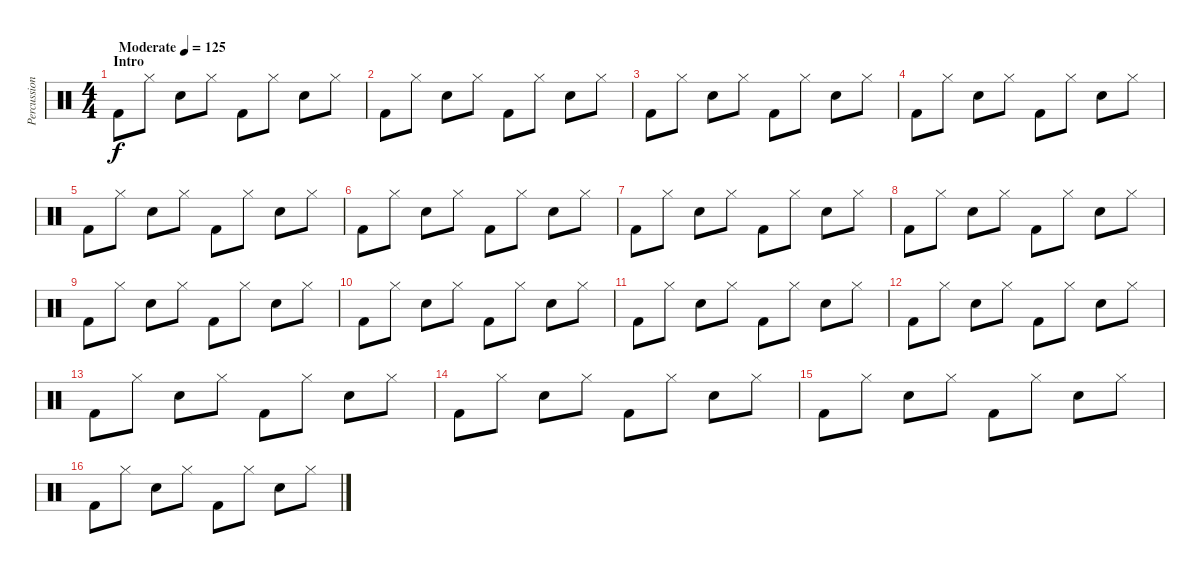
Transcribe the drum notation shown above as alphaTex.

\track ("Percussion" "Percussion") {instrument percussion}
\staff {score}
\articulation defaults
\ts (4 4)
\section ("" "Intro")
\tempo (125 "Moderate")
\clef neutral
\ks c "Kick (hit) 2".8{dy f} "Hi-Hat (closed)".8 "Snare (hit) 2".8 "Hi-Hat (closed)".8 "Kick (hit) 2".8 "Hi-Hat (closed)".8 "Snare (hit) 2".8 "Hi-Hat (closed)".8
|
"Kick (hit) 2".8 "Hi-Hat (closed)".8 "Snare (hit) 2".8 "Hi-Hat (closed)".8 "Kick (hit) 2".8 "Hi-Hat (closed)".8 "Snare (hit) 2".8 "Hi-Hat (closed)".8 |
"Kick (hit) 2".8 "Hi-Hat (closed)".8 "Snare (hit) 2".8 "Hi-Hat (closed)".8 "Kick (hit) 2".8 "Hi-Hat (closed)".8 "Snare (hit) 2".8 "Hi-Hat (closed)".8 |
"Kick (hit) 2".8 "Hi-Hat (closed)".8 "Snare (hit) 2".8 "Hi-Hat (closed)".8 "Kick (hit) 2".8 "Hi-Hat (closed)".8 "Snare (hit) 2".8 "Hi-Hat (closed)".8 |
"Kick (hit) 2".8 "Hi-Hat (closed)".8 "Snare (hit) 2".8 "Hi-Hat (closed)".8 "Kick (hit) 2".8 "Hi-Hat (closed)".8 "Snare (hit) 2".8 "Hi-Hat (closed)".8 |
"Kick (hit) 2".8 "Hi-Hat (closed)".8 "Snare (hit) 2".8 "Hi-Hat (closed)".8 "Kick (hit) 2".8 "Hi-Hat (closed)".8 "Snare (hit) 2".8 "Hi-Hat (closed)".8 |
"Kick (hit) 2".8 "Hi-Hat (closed)".8 "Snare (hit) 2".8 "Hi-Hat (closed)".8 "Kick (hit) 2".8 "Hi-Hat (closed)".8 "Snare (hit) 2".8 "Hi-Hat (closed)".8 |
"Kick (hit) 2".8 "Hi-Hat (closed)".8 "Snare (hit) 2".8 "Hi-Hat (closed)".8 "Kick (hit) 2".8 "Hi-Hat (closed)".8 "Snare (hit) 2".8 "Hi-Hat (closed)".8 |
"Kick (hit) 2".8 "Hi-Hat (closed)".8 "Snare (hit) 2".8 "Hi-Hat (closed)".8 "Kick (hit) 2".8 "Hi-Hat (closed)".8 "Snare (hit) 2".8 "Hi-Hat (closed)".8 |
"Kick (hit) 2".8 "Hi-Hat (closed)".8 "Snare (hit) 2".8 "Hi-Hat (closed)".8 "Kick (hit) 2".8 "Hi-Hat (closed)".8 "Snare (hit) 2".8 "Hi-Hat (closed)".8 |
"Kick (hit) 2".8 "Hi-Hat (closed)".8 "Snare (hit) 2".8 "Hi-Hat (closed)".8 "Kick (hit) 2".8 "Hi-Hat (closed)".8 "Snare (hit) 2".8 "Hi-Hat (closed)".8 |
"Kick (hit) 2".8 "Hi-Hat (closed)".8 "Snare (hit) 2".8 "Hi-Hat (closed)".8 "Kick (hit) 2".8 "Hi-Hat (closed)".8 "Snare (hit) 2".8 "Hi-Hat (closed)".8 |
"Kick (hit) 2".8 "Hi-Hat (closed)".8 "Snare (hit) 2".8 "Hi-Hat (closed)".8 "Kick (hit) 2".8 "Hi-Hat (closed)".8 "Snare (hit) 2".8 "Hi-Hat (closed)".8 |
"Kick (hit) 2".8 "Hi-Hat (closed)".8 "Snare (hit) 2".8 "Hi-Hat (closed)".8 "Kick (hit) 2".8 "Hi-Hat (closed)".8 "Snare (hit) 2".8 "Hi-Hat (closed)".8 |
"Kick (hit) 2".8 "Hi-Hat (closed)".8 "Snare (hit) 2".8 "Hi-Hat (closed)".8 "Kick (hit) 2".8 "Hi-Hat (closed)".8 "Snare (hit) 2".8 "Hi-Hat (closed)".8 |
"Kick (hit) 2".8 "Hi-Hat (closed)".8 "Snare (hit) 2".8 "Hi-Hat (closed)".8 "Kick (hit) 2".8 "Hi-Hat (closed)".8 "Snare (hit) 2".8 "Hi-Hat (closed)".8
